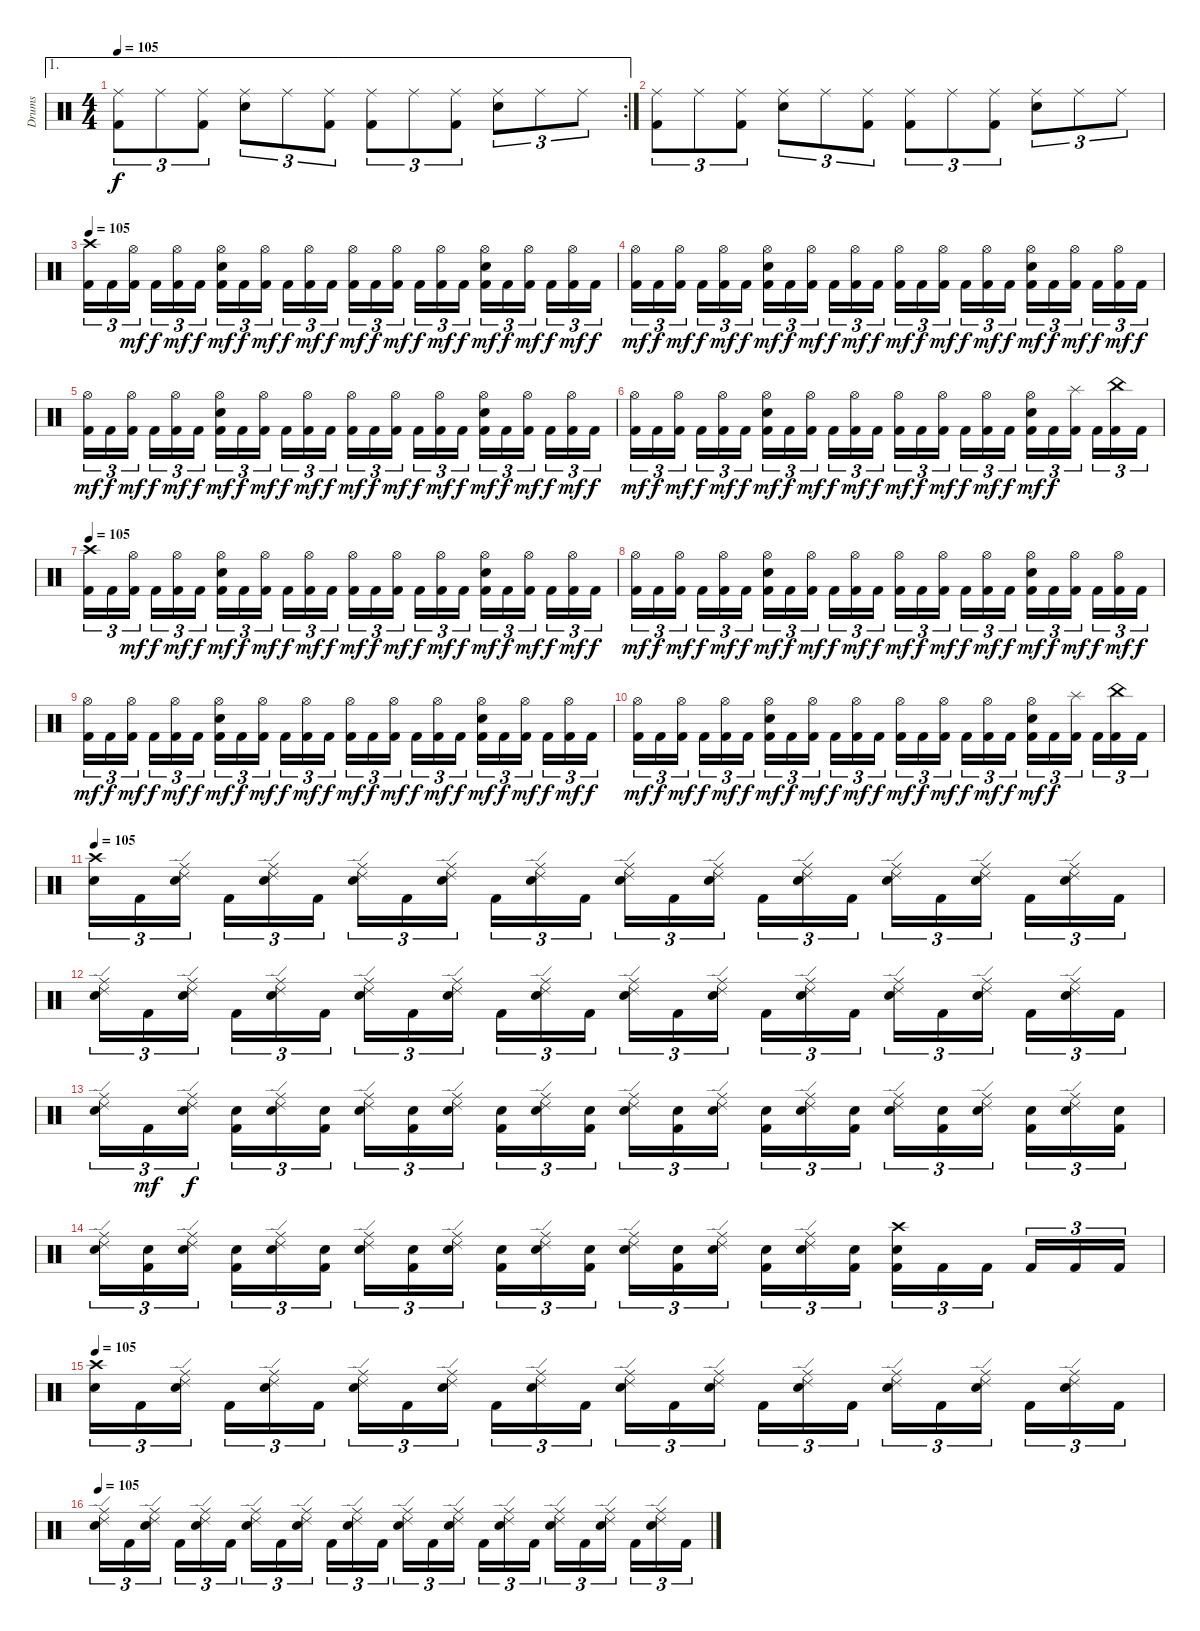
\track ("Drums" "Drums") {instrument percussion}
\staff {score}
\articulation defaults
\ae 1
\rc 2
\ts (4 4)
\tempo 105
\clef neutral
\ks c
("Ride (middle)" "Kick (hit) 2").8{tu (3 2) dy f} "Ride (middle)".8{tu (3 2)} ("Ride (middle)" "Kick (hit) 2").8{tu (3 2)} ("Ride (middle)" "Electric Snare (hit)").8{tu (3 2)} "Ride (middle)".8{tu (3 2)} ("Ride (middle)" "Kick (hit) 2").8{tu (3 2)} ("Ride (middle)" "Kick (hit) 2").8{tu (3 2)} "Ride (middle)".8{tu (3 2)} ("Ride (middle)" "Kick (hit) 2").8{tu (3 2)} ("Ride (middle)" "Electric Snare (hit)").8{tu (3 2)} "Ride (middle)".8{tu (3 2)} "Ride (middle)".8{tu (3 2)} |
("Ride (middle)" "Kick (hit) 2").8{tu (3 2)} "Ride (middle)".8{tu (3 2)} ("Ride (middle)" "Kick (hit) 2").8{tu (3 2)} ("Ride (middle)" "Electric Snare (hit)").8{tu (3 2)} "Ride (middle)".8{tu (3 2)} ("Ride (middle)" "Kick (hit) 2").8{tu (3 2)} ("Ride (middle)" "Kick (hit) 2").8{tu (3 2)} "Ride (middle)".8{tu (3 2)} ("Ride (middle)" "Kick (hit) 2").8{tu (3 2)} ("Ride (middle)" "Electric Snare (hit)").8{tu (3 2)} "Ride (middle)".8{tu (3 2)} "Ride (middle)".8{tu (3 2)} |
\tempo 105
("Crash high (hit)" "Kick (hit) 2").16{tu (3 2)} "Kick (hit) 2".16{tu (3 2)} ("Hi-Hat (open)" "Kick (hit) 2").16{tu (3 2) dy mf} "Kick (hit) 2".16{tu (3 2) dy f} ("Hi-Hat (open)" "Kick (hit) 2").16{tu (3 2) dy mf} "Kick (hit) 2".16{tu (3 2) dy f} ("Hi-Hat (open)" "Electric Snare (hit)" "Kick (hit) 2").16{tu (3 2) dy mf} "Kick (hit) 2".16{tu (3 2) dy f} ("Hi-Hat (open)" "Kick (hit) 2").16{tu (3 2) dy mf} "Kick (hit) 2".16{tu (3 2) dy f} ("Hi-Hat (open)" "Kick (hit) 2").16{tu (3 2) dy mf} "Kick (hit) 2".16{tu (3 2) dy f} ("Hi-Hat (open)" "Kick (hit) 2").16{tu (3 2) dy mf} "Kick (hit) 2".16{tu (3 2) dy f} ("Hi-Hat (open)" "Kick (hit) 2").16{tu (3 2) dy mf} "Kick (hit) 2".16{tu (3 2) dy f} ("Hi-Hat (open)" "Kick (hit) 2").16{tu (3 2) dy mf} "Kick (hit) 2".16{tu (3 2) dy f} ("Hi-Hat (open)" "Electric Snare (hit)" "Kick (hit) 2").16{tu (3 2) dy mf} "Kick (hit) 2".16{tu (3 2) dy f} ("Hi-Hat (open)" "Kick (hit) 2").16{tu (3 2) dy mf} "Kick (hit) 2".16{tu (3 2) dy f} ("Hi-Hat (open)" "Kick (hit) 2").16{tu (3 2) dy mf} "Kick (hit) 2".16{tu (3 2) dy f} |
("Hi-Hat (open)" "Kick (hit) 2").16{tu (3 2) dy mf} "Kick (hit) 2".16{tu (3 2) dy f} ("Hi-Hat (open)" "Kick (hit) 2").16{tu (3 2) dy mf} "Kick (hit) 2".16{tu (3 2) dy f} ("Hi-Hat (open)" "Kick (hit) 2").16{tu (3 2) dy mf} "Kick (hit) 2".16{tu (3 2) dy f} ("Hi-Hat (open)" "Electric Snare (hit)" "Kick (hit) 2").16{tu (3 2) dy mf} "Kick (hit) 2".16{tu (3 2) dy f} ("Hi-Hat (open)" "Kick (hit) 2").16{tu (3 2) dy mf} "Kick (hit) 2".16{tu (3 2) dy f} ("Hi-Hat (open)" "Kick (hit) 2").16{tu (3 2) dy mf} "Kick (hit) 2".16{tu (3 2) dy f} ("Hi-Hat (open)" "Kick (hit) 2").16{tu (3 2) dy mf} "Kick (hit) 2".16{tu (3 2) dy f} ("Hi-Hat (open)" "Kick (hit) 2").16{tu (3 2) dy mf} "Kick (hit) 2".16{tu (3 2) dy f} ("Hi-Hat (open)" "Kick (hit) 2").16{tu (3 2) dy mf} "Kick (hit) 2".16{tu (3 2) dy f} ("Hi-Hat (open)" "Electric Snare (hit)" "Kick (hit) 2").16{tu (3 2) dy mf} "Kick (hit) 2".16{tu (3 2) dy f} ("Hi-Hat (open)" "Kick (hit) 2").16{tu (3 2) dy mf} "Kick (hit) 2".16{tu (3 2) dy f} ("Hi-Hat (open)" "Kick (hit) 2").16{tu (3 2) dy mf} "Kick (hit) 2".16{tu (3 2) dy f} |
("Hi-Hat (open)" "Kick (hit) 2").16{tu (3 2) dy mf} "Kick (hit) 2".16{tu (3 2) dy f} ("Hi-Hat (open)" "Kick (hit) 2").16{tu (3 2) dy mf} "Kick (hit) 2".16{tu (3 2) dy f} ("Hi-Hat (open)" "Kick (hit) 2").16{tu (3 2) dy mf} "Kick (hit) 2".16{tu (3 2) dy f} ("Hi-Hat (open)" "Electric Snare (hit)" "Kick (hit) 2").16{tu (3 2) dy mf} "Kick (hit) 2".16{tu (3 2) dy f} ("Hi-Hat (open)" "Kick (hit) 2").16{tu (3 2) dy mf} "Kick (hit) 2".16{tu (3 2) dy f} ("Hi-Hat (open)" "Kick (hit) 2").16{tu (3 2) dy mf} "Kick (hit) 2".16{tu (3 2) dy f} ("Hi-Hat (open)" "Kick (hit) 2").16{tu (3 2) dy mf} "Kick (hit) 2".16{tu (3 2) dy f} ("Hi-Hat (open)" "Kick (hit) 2").16{tu (3 2) dy mf} "Kick (hit) 2".16{tu (3 2) dy f} ("Hi-Hat (open)" "Kick (hit) 2").16{tu (3 2) dy mf} "Kick (hit) 2".16{tu (3 2) dy f} ("Hi-Hat (open)" "Electric Snare (hit)" "Kick (hit) 2").16{tu (3 2) dy mf} "Kick (hit) 2".16{tu (3 2) dy f} ("Hi-Hat (open)" "Kick (hit) 2").16{tu (3 2) dy mf} "Kick (hit) 2".16{tu (3 2) dy f} ("Hi-Hat (open)" "Kick (hit) 2").16{tu (3 2) dy mf} "Kick (hit) 2".16{tu (3 2) dy f} |
("Hi-Hat (open)" "Kick (hit) 2").16{tu (3 2) dy mf} "Kick (hit) 2".16{tu (3 2) dy f} ("Hi-Hat (open)" "Kick (hit) 2").16{tu (3 2) dy mf} "Kick (hit) 2".16{tu (3 2) dy f} ("Hi-Hat (open)" "Kick (hit) 2").16{tu (3 2) dy mf} "Kick (hit) 2".16{tu (3 2) dy f} ("Hi-Hat (open)" "Electric Snare (hit)" "Kick (hit) 2").16{tu (3 2) dy mf} "Kick (hit) 2".16{tu (3 2) dy f} ("Hi-Hat (open)" "Kick (hit) 2").16{tu (3 2) dy mf} "Kick (hit) 2".16{tu (3 2) dy f} ("Hi-Hat (open)" "Kick (hit) 2").16{tu (3 2) dy mf} "Kick (hit) 2".16{tu (3 2) dy f} ("Hi-Hat (open)" "Kick (hit) 2").16{tu (3 2) dy mf} "Kick (hit) 2".16{tu (3 2) dy f} ("Hi-Hat (open)" "Kick (hit) 2").16{tu (3 2) dy mf} "Kick (hit) 2".16{tu (3 2) dy f} ("Hi-Hat (open)" "Kick (hit) 2").16{tu (3 2) dy mf} "Kick (hit) 2".16{tu (3 2) dy f} ("Hi-Hat (open)" "Electric Snare (hit)" "Kick (hit) 2").16{tu (3 2) dy mf} "Kick (hit) 2".16{tu (3 2) dy f} ("Splash (hit)" "Kick (hit) 2").16{tu (3 2)} "Kick (hit) 2".16{tu (3 2)} ("China (hit)" "Kick (hit) 2").16{tu (3 2)} "Kick (hit) 2".16{tu (3 2)} |
\tempo 105
("Crash high (hit)" "Kick (hit) 2").16{tu (3 2)} "Kick (hit) 2".16{tu (3 2)} ("Hi-Hat (open)" "Kick (hit) 2").16{tu (3 2) dy mf} "Kick (hit) 2".16{tu (3 2) dy f} ("Hi-Hat (open)" "Kick (hit) 2").16{tu (3 2) dy mf} "Kick (hit) 2".16{tu (3 2) dy f} ("Hi-Hat (open)" "Electric Snare (hit)" "Kick (hit) 2").16{tu (3 2) dy mf} "Kick (hit) 2".16{tu (3 2) dy f} ("Hi-Hat (open)" "Kick (hit) 2").16{tu (3 2) dy mf} "Kick (hit) 2".16{tu (3 2) dy f} ("Hi-Hat (open)" "Kick (hit) 2").16{tu (3 2) dy mf} "Kick (hit) 2".16{tu (3 2) dy f} ("Hi-Hat (open)" "Kick (hit) 2").16{tu (3 2) dy mf} "Kick (hit) 2".16{tu (3 2) dy f} ("Hi-Hat (open)" "Kick (hit) 2").16{tu (3 2) dy mf} "Kick (hit) 2".16{tu (3 2) dy f} ("Hi-Hat (open)" "Kick (hit) 2").16{tu (3 2) dy mf} "Kick (hit) 2".16{tu (3 2) dy f} ("Hi-Hat (open)" "Electric Snare (hit)" "Kick (hit) 2").16{tu (3 2) dy mf} "Kick (hit) 2".16{tu (3 2) dy f} ("Hi-Hat (open)" "Kick (hit) 2").16{tu (3 2) dy mf} "Kick (hit) 2".16{tu (3 2) dy f} ("Hi-Hat (open)" "Kick (hit) 2").16{tu (3 2) dy mf} "Kick (hit) 2".16{tu (3 2) dy f} |
("Hi-Hat (open)" "Kick (hit) 2").16{tu (3 2) dy mf} "Kick (hit) 2".16{tu (3 2) dy f} ("Hi-Hat (open)" "Kick (hit) 2").16{tu (3 2) dy mf} "Kick (hit) 2".16{tu (3 2) dy f} ("Hi-Hat (open)" "Kick (hit) 2").16{tu (3 2) dy mf} "Kick (hit) 2".16{tu (3 2) dy f} ("Hi-Hat (open)" "Electric Snare (hit)" "Kick (hit) 2").16{tu (3 2) dy mf} "Kick (hit) 2".16{tu (3 2) dy f} ("Hi-Hat (open)" "Kick (hit) 2").16{tu (3 2) dy mf} "Kick (hit) 2".16{tu (3 2) dy f} ("Hi-Hat (open)" "Kick (hit) 2").16{tu (3 2) dy mf} "Kick (hit) 2".16{tu (3 2) dy f} ("Hi-Hat (open)" "Kick (hit) 2").16{tu (3 2) dy mf} "Kick (hit) 2".16{tu (3 2) dy f} ("Hi-Hat (open)" "Kick (hit) 2").16{tu (3 2) dy mf} "Kick (hit) 2".16{tu (3 2) dy f} ("Hi-Hat (open)" "Kick (hit) 2").16{tu (3 2) dy mf} "Kick (hit) 2".16{tu (3 2) dy f} ("Hi-Hat (open)" "Electric Snare (hit)" "Kick (hit) 2").16{tu (3 2) dy mf} "Kick (hit) 2".16{tu (3 2) dy f} ("Hi-Hat (open)" "Kick (hit) 2").16{tu (3 2) dy mf} "Kick (hit) 2".16{tu (3 2) dy f} ("Hi-Hat (open)" "Kick (hit) 2").16{tu (3 2) dy mf} "Kick (hit) 2".16{tu (3 2) dy f} |
("Hi-Hat (open)" "Kick (hit) 2").16{tu (3 2) dy mf} "Kick (hit) 2".16{tu (3 2) dy f} ("Hi-Hat (open)" "Kick (hit) 2").16{tu (3 2) dy mf} "Kick (hit) 2".16{tu (3 2) dy f} ("Hi-Hat (open)" "Kick (hit) 2").16{tu (3 2) dy mf} "Kick (hit) 2".16{tu (3 2) dy f} ("Hi-Hat (open)" "Electric Snare (hit)" "Kick (hit) 2").16{tu (3 2) dy mf} "Kick (hit) 2".16{tu (3 2) dy f} ("Hi-Hat (open)" "Kick (hit) 2").16{tu (3 2) dy mf} "Kick (hit) 2".16{tu (3 2) dy f} ("Hi-Hat (open)" "Kick (hit) 2").16{tu (3 2) dy mf} "Kick (hit) 2".16{tu (3 2) dy f} ("Hi-Hat (open)" "Kick (hit) 2").16{tu (3 2) dy mf} "Kick (hit) 2".16{tu (3 2) dy f} ("Hi-Hat (open)" "Kick (hit) 2").16{tu (3 2) dy mf} "Kick (hit) 2".16{tu (3 2) dy f} ("Hi-Hat (open)" "Kick (hit) 2").16{tu (3 2) dy mf} "Kick (hit) 2".16{tu (3 2) dy f} ("Hi-Hat (open)" "Electric Snare (hit)" "Kick (hit) 2").16{tu (3 2) dy mf} "Kick (hit) 2".16{tu (3 2) dy f} ("Hi-Hat (open)" "Kick (hit) 2").16{tu (3 2) dy mf} "Kick (hit) 2".16{tu (3 2) dy f} ("Hi-Hat (open)" "Kick (hit) 2").16{tu (3 2) dy mf} "Kick (hit) 2".16{tu (3 2) dy f} |
("Hi-Hat (open)" "Kick (hit) 2").16{tu (3 2) dy mf} "Kick (hit) 2".16{tu (3 2) dy f} ("Hi-Hat (open)" "Kick (hit) 2").16{tu (3 2) dy mf} "Kick (hit) 2".16{tu (3 2) dy f} ("Hi-Hat (open)" "Kick (hit) 2").16{tu (3 2) dy mf} "Kick (hit) 2".16{tu (3 2) dy f} ("Hi-Hat (open)" "Electric Snare (hit)" "Kick (hit) 2").16{tu (3 2) dy mf} "Kick (hit) 2".16{tu (3 2) dy f} ("Hi-Hat (open)" "Kick (hit) 2").16{tu (3 2) dy mf} "Kick (hit) 2".16{tu (3 2) dy f} ("Hi-Hat (open)" "Kick (hit) 2").16{tu (3 2) dy mf} "Kick (hit) 2".16{tu (3 2) dy f} ("Hi-Hat (open)" "Kick (hit) 2").16{tu (3 2) dy mf} "Kick (hit) 2".16{tu (3 2) dy f} ("Hi-Hat (open)" "Kick (hit) 2").16{tu (3 2) dy mf} "Kick (hit) 2".16{tu (3 2) dy f} ("Hi-Hat (open)" "Kick (hit) 2").16{tu (3 2) dy mf} "Kick (hit) 2".16{tu (3 2) dy f} ("Hi-Hat (open)" "Electric Snare (hit)" "Kick (hit) 2").16{tu (3 2) dy mf} "Kick (hit) 2".16{tu (3 2) dy f} ("Splash (hit)" "Kick (hit) 2").16{tu (3 2)} "Kick (hit) 2".16{tu (3 2)} ("China (hit)" "Kick (hit) 2").16{tu (3 2)} "Kick (hit) 2".16{tu (3 2)} |
\tempo 105
("Crash high (hit)" "Electric Snare (hit)").16{tu (3 2)} "Kick (hit) 2".16{tu (3 2)} ("Ride (edge) 2" "Ride (middle)" "Electric Snare (hit)").16{tu (3 2)} "Kick (hit) 2".16{tu (3 2)} ("Ride (edge) 2" "Ride (middle)" "Electric Snare (hit)").16{tu (3 2)} "Kick (hit) 2".16{tu (3 2)} ("Ride (edge) 2" "Ride (middle)" "Electric Snare (hit)").16{tu (3 2)} "Kick (hit) 2".16{tu (3 2)} ("Ride (edge) 2" "Ride (middle)" "Electric Snare (hit)").16{tu (3 2)} "Kick (hit) 2".16{tu (3 2)} ("Ride (edge) 2" "Ride (middle)" "Electric Snare (hit)").16{tu (3 2)} "Kick (hit) 2".16{tu (3 2)} ("Ride (edge) 2" "Ride (middle)" "Electric Snare (hit)").16{tu (3 2)} "Kick (hit) 2".16{tu (3 2)} ("Ride (edge) 2" "Ride (middle)" "Electric Snare (hit)").16{tu (3 2)} "Kick (hit) 2".16{tu (3 2)} ("Ride (edge) 2" "Ride (middle)" "Electric Snare (hit)").16{tu (3 2)} "Kick (hit) 2".16{tu (3 2)} ("Ride (edge) 2" "Ride (middle)" "Electric Snare (hit)").16{tu (3 2)} "Kick (hit) 2".16{tu (3 2)} ("Ride (edge) 2" "Ride (middle)" "Electric Snare (hit)").16{tu (3 2)} "Kick (hit) 2".16{tu (3 2)} ("Ride (edge) 2" "Ride (middle)" "Electric Snare (hit)").16{tu (3 2)} "Kick (hit) 2".16{tu (3 2)} |
("Ride (edge) 2" "Ride (middle)" "Electric Snare (hit)").16{tu (3 2)} "Kick (hit) 2".16{tu (3 2)} ("Ride (edge) 2" "Ride (middle)" "Electric Snare (hit)").16{tu (3 2)} "Kick (hit) 2".16{tu (3 2)} ("Ride (edge) 2" "Ride (middle)" "Electric Snare (hit)").16{tu (3 2)} "Kick (hit) 2".16{tu (3 2)} ("Ride (edge) 2" "Ride (middle)" "Electric Snare (hit)").16{tu (3 2)} "Kick (hit) 2".16{tu (3 2)} ("Ride (edge) 2" "Ride (middle)" "Electric Snare (hit)").16{tu (3 2)} "Kick (hit) 2".16{tu (3 2)} ("Ride (edge) 2" "Ride (middle)" "Electric Snare (hit)").16{tu (3 2)} "Kick (hit) 2".16{tu (3 2)} ("Ride (edge) 2" "Ride (middle)" "Electric Snare (hit)").16{tu (3 2)} "Kick (hit) 2".16{tu (3 2)} ("Ride (edge) 2" "Ride (middle)" "Electric Snare (hit)").16{tu (3 2)} "Kick (hit) 2".16{tu (3 2)} ("Ride (edge) 2" "Ride (middle)" "Electric Snare (hit)").16{tu (3 2)} "Kick (hit) 2".16{tu (3 2)} ("Ride (edge) 2" "Ride (middle)" "Electric Snare (hit)").16{tu (3 2)} "Kick (hit) 2".16{tu (3 2)} ("Ride (edge) 2" "Ride (middle)" "Electric Snare (hit)").16{tu (3 2)} "Kick (hit) 2".16{tu (3 2)} ("Ride (edge) 2" "Ride (middle)" "Electric Snare (hit)").16{tu (3 2)} "Kick (hit) 2".16{tu (3 2)} |
("Ride (edge) 2" "Ride (middle)" "Electric Snare (hit)").16{tu (3 2)} "Kick (hit) 2".16{tu (3 2) dy mf} ("Ride (edge) 2" "Ride (middle)" "Electric Snare (hit)").16{tu (3 2) dy f} ("Electric Snare (hit)" "Kick (hit) 2").16{tu (3 2)} ("Ride (edge) 2" "Ride (middle)" "Electric Snare (hit)").16{tu (3 2)} ("Electric Snare (hit)" "Kick (hit) 2").16{tu (3 2)} ("Ride (edge) 2" "Ride (middle)" "Electric Snare (hit)").16{tu (3 2)} ("Electric Snare (hit)" "Kick (hit) 2").16{tu (3 2)} ("Ride (edge) 2" "Ride (middle)" "Electric Snare (hit)").16{tu (3 2)} ("Electric Snare (hit)" "Kick (hit) 2").16{tu (3 2)} ("Ride (edge) 2" "Ride (middle)" "Electric Snare (hit)").16{tu (3 2)} ("Electric Snare (hit)" "Kick (hit) 2").16{tu (3 2)} ("Ride (edge) 2" "Ride (middle)" "Electric Snare (hit)").16{tu (3 2)} ("Electric Snare (hit)" "Kick (hit) 2").16{tu (3 2)} ("Ride (edge) 2" "Ride (middle)" "Electric Snare (hit)").16{tu (3 2)} ("Electric Snare (hit)" "Kick (hit) 2").16{tu (3 2)} ("Ride (edge) 2" "Ride (middle)" "Electric Snare (hit)").16{tu (3 2)} ("Electric Snare (hit)" "Kick (hit) 2").16{tu (3 2)} ("Ride (edge) 2" "Ride (middle)" "Electric Snare (hit)").16{tu (3 2)} ("Electric Snare (hit)" "Kick (hit) 2").16{tu (3 2)} ("Ride (edge) 2" "Ride (middle)" "Electric Snare (hit)").16{tu (3 2)} ("Electric Snare (hit)" "Kick (hit) 2").16{tu (3 2)} ("Ride (edge) 2" "Ride (middle)" "Electric Snare (hit)").16{tu (3 2)} ("Electric Snare (hit)" "Kick (hit) 2").16{tu (3 2)} |
("Ride (edge) 2" "Ride (middle)" "Electric Snare (hit)").16{tu (3 2)} ("Electric Snare (hit)" "Kick (hit) 2").16{tu (3 2)} ("Ride (edge) 2" "Ride (middle)" "Electric Snare (hit)").16{tu (3 2)} ("Electric Snare (hit)" "Kick (hit) 2").16{tu (3 2)} ("Ride (edge) 2" "Ride (middle)" "Electric Snare (hit)").16{tu (3 2)} ("Electric Snare (hit)" "Kick (hit) 2").16{tu (3 2)} ("Ride (edge) 2" "Ride (middle)" "Electric Snare (hit)").16{tu (3 2)} ("Electric Snare (hit)" "Kick (hit) 2").16{tu (3 2)} ("Ride (edge) 2" "Ride (middle)" "Electric Snare (hit)").16{tu (3 2)} ("Electric Snare (hit)" "Kick (hit) 2").16{tu (3 2)} ("Ride (edge) 2" "Ride (middle)" "Electric Snare (hit)").16{tu (3 2)} ("Electric Snare (hit)" "Kick (hit) 2").16{tu (3 2)} ("Ride (edge) 2" "Ride (middle)" "Electric Snare (hit)").16{tu (3 2)} ("Electric Snare (hit)" "Kick (hit) 2").16{tu (3 2)} ("Ride (edge) 2" "Ride (middle)" "Electric Snare (hit)").16{tu (3 2)} ("Electric Snare (hit)" "Kick (hit) 2").16{tu (3 2)} ("Ride (edge) 2" "Ride (middle)" "Electric Snare (hit)").16{tu (3 2)} ("Electric Snare (hit)" "Kick (hit) 2").16{tu (3 2)} ("Crash high (hit)" "Electric Snare (hit)" "Kick (hit) 2").16{tu (3 2)} "Kick (hit) 2".16{tu (3 2)} "Kick (hit) 2".16{tu (3 2)} "Kick (hit) 2".16{tu (3 2)} "Kick (hit) 2".16{tu (3 2)} "Kick (hit) 2".16{tu (3 2)} |
\tempo 105
("Crash high (hit)" "Electric Snare (hit)").16{tu (3 2)} "Kick (hit) 2".16{tu (3 2)} ("Ride (edge) 2" "Ride (middle)" "Electric Snare (hit)").16{tu (3 2)} "Kick (hit) 2".16{tu (3 2)} ("Ride (edge) 2" "Ride (middle)" "Electric Snare (hit)").16{tu (3 2)} "Kick (hit) 2".16{tu (3 2)} ("Ride (edge) 2" "Ride (middle)" "Electric Snare (hit)").16{tu (3 2)} "Kick (hit) 2".16{tu (3 2)} ("Ride (edge) 2" "Ride (middle)" "Electric Snare (hit)").16{tu (3 2)} "Kick (hit) 2".16{tu (3 2)} ("Ride (edge) 2" "Ride (middle)" "Electric Snare (hit)").16{tu (3 2)} "Kick (hit) 2".16{tu (3 2)} ("Ride (edge) 2" "Ride (middle)" "Electric Snare (hit)").16{tu (3 2)} "Kick (hit) 2".16{tu (3 2)} ("Ride (edge) 2" "Ride (middle)" "Electric Snare (hit)").16{tu (3 2)} "Kick (hit) 2".16{tu (3 2)} ("Ride (edge) 2" "Ride (middle)" "Electric Snare (hit)").16{tu (3 2)} "Kick (hit) 2".16{tu (3 2)} ("Ride (edge) 2" "Ride (middle)" "Electric Snare (hit)").16{tu (3 2)} "Kick (hit) 2".16{tu (3 2)} ("Ride (edge) 2" "Ride (middle)" "Electric Snare (hit)").16{tu (3 2)} "Kick (hit) 2".16{tu (3 2)} ("Ride (edge) 2" "Ride (middle)" "Electric Snare (hit)").16{tu (3 2)} "Kick (hit) 2".16{tu (3 2)} |
\tempo 105
("Ride (edge) 2" "Ride (middle)" "Electric Snare (hit)").16{tu (3 2)} "Kick (hit) 2".16{tu (3 2)} ("Ride (edge) 2" "Ride (middle)" "Electric Snare (hit)").16{tu (3 2)} "Kick (hit) 2".16{tu (3 2)} ("Ride (edge) 2" "Ride (middle)" "Electric Snare (hit)").16{tu (3 2)} "Kick (hit) 2".16{tu (3 2)} ("Ride (edge) 2" "Ride (middle)" "Electric Snare (hit)").16{tu (3 2)} "Kick (hit) 2".16{tu (3 2)} ("Ride (edge) 2" "Ride (middle)" "Electric Snare (hit)").16{tu (3 2)} "Kick (hit) 2".16{tu (3 2)} ("Ride (edge) 2" "Ride (middle)" "Electric Snare (hit)").16{tu (3 2)} "Kick (hit) 2".16{tu (3 2)} ("Ride (edge) 2" "Ride (middle)" "Electric Snare (hit)").16{tu (3 2)} "Kick (hit) 2".16{tu (3 2)} ("Ride (edge) 2" "Ride (middle)" "Electric Snare (hit)").16{tu (3 2)} "Kick (hit) 2".16{tu (3 2)} ("Ride (edge) 2" "Ride (middle)" "Electric Snare (hit)").16{tu (3 2)} "Kick (hit) 2".16{tu (3 2)} ("Ride (edge) 2" "Ride (middle)" "Electric Snare (hit)").16{tu (3 2)} "Kick (hit) 2".16{tu (3 2)} ("Ride (edge) 2" "Ride (middle)" "Electric Snare (hit)").16{tu (3 2)} "Kick (hit) 2".16{tu (3 2)} ("Ride (edge) 2" "Ride (middle)" "Electric Snare (hit)").16{tu (3 2)} "Kick (hit) 2".16{tu (3 2)}
